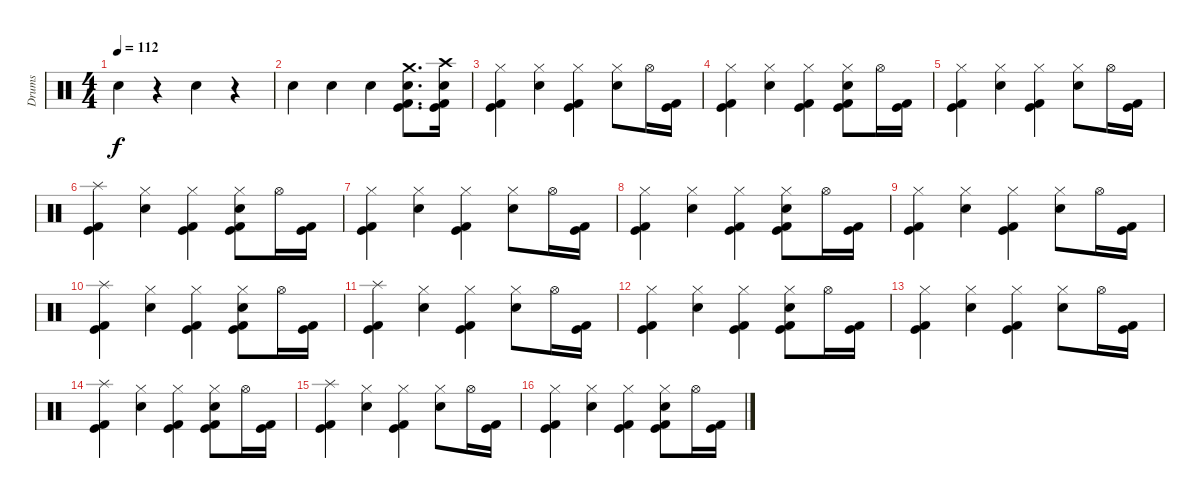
\track ("Drums" "Drums") {instrument percussion}
\staff {score}
\articulation defaults
\ts (4 4)
\tempo 112
\clef neutral
\ks c "Electric Snare (hit)".4{dy f}
r.4 "Electric Snare (hit)".4 r.4 |
"Electric Snare (hit)".4 "Electric Snare (hit)".4 "Electric Snare (hit)".4 ("Crash medium (hit)" "Electric Snare (hit)" "Kick (hit) 2" "Kick (hit)").8{d} ("Crash high (hit)" "Electric Snare (hit)" "Kick (hit) 2" "Kick (hit)").16 |
("Hi-Hat (closed)" "Kick (hit) 2" "Kick (hit)").4 ("Hi-Hat (closed)" "Electric Snare (hit)").4 ("Hi-Hat (closed)" "Kick (hit) 2" "Kick (hit)").4 ("Hi-Hat (closed)" "Electric Snare (hit)").8 "Hi-Hat (open)".16 ("Kick (hit) 2" "Kick (hit)").16 |
("Hi-Hat (closed)" "Kick (hit) 2" "Kick (hit)").4 ("Hi-Hat (closed)" "Electric Snare (hit)").4 ("Hi-Hat (closed)" "Kick (hit) 2" "Kick (hit)").4 ("Hi-Hat (closed)" "Electric Snare (hit)" "Kick (hit) 2" "Kick (hit)").8 "Hi-Hat (open)".16 ("Kick (hit) 2" "Kick (hit)").16 |
("Hi-Hat (closed)" "Kick (hit) 2" "Kick (hit)").4 ("Hi-Hat (closed)" "Electric Snare (hit)").4 ("Hi-Hat (closed)" "Kick (hit) 2" "Kick (hit)").4 ("Hi-Hat (closed)" "Electric Snare (hit)").8 "Hi-Hat (open)".16 ("Kick (hit) 2" "Kick (hit)").16 |
("Splash (hit)" "Kick (hit) 2" "Kick (hit)").4 ("Hi-Hat (closed)" "Electric Snare (hit)").4 ("Hi-Hat (closed)" "Kick (hit) 2" "Kick (hit)").4 ("Hi-Hat (closed)" "Electric Snare (hit)" "Kick (hit) 2" "Kick (hit)").8 "Hi-Hat (open)".16 ("Kick (hit) 2" "Kick (hit)").16 |
("Hi-Hat (closed)" "Kick (hit) 2" "Kick (hit)").4 ("Hi-Hat (closed)" "Electric Snare (hit)").4 ("Hi-Hat (closed)" "Kick (hit) 2" "Kick (hit)").4 ("Hi-Hat (closed)" "Electric Snare (hit)").8 "Hi-Hat (open)".16 ("Kick (hit) 2" "Kick (hit)").16 |
("Hi-Hat (closed)" "Kick (hit) 2" "Kick (hit)").4 ("Hi-Hat (closed)" "Electric Snare (hit)").4 ("Hi-Hat (closed)" "Kick (hit) 2" "Kick (hit)").4 ("Hi-Hat (closed)" "Electric Snare (hit)" "Kick (hit) 2" "Kick (hit)").8 "Hi-Hat (open)".16 ("Kick (hit) 2" "Kick (hit)").16 |
("Hi-Hat (closed)" "Kick (hit) 2" "Kick (hit)").4 ("Hi-Hat (closed)" "Electric Snare (hit)").4 ("Hi-Hat (closed)" "Kick (hit) 2" "Kick (hit)").4 ("Hi-Hat (closed)" "Electric Snare (hit)").8 "Hi-Hat (open)".16 ("Kick (hit) 2" "Kick (hit)").16 |
("Splash (hit)" "Kick (hit) 2" "Kick (hit)").4 ("Hi-Hat (closed)" "Electric Snare (hit)").4 ("Hi-Hat (closed)" "Kick (hit) 2" "Kick (hit)").4 ("Hi-Hat (closed)" "Electric Snare (hit)" "Kick (hit) 2" "Kick (hit)").8 "Hi-Hat (open)".16 ("Kick (hit) 2" "Kick (hit)").16 |
("Splash (hit)" "Kick (hit) 2" "Kick (hit)").4 ("Hi-Hat (closed)" "Electric Snare (hit)").4 ("Hi-Hat (closed)" "Kick (hit) 2" "Kick (hit)").4 ("Hi-Hat (closed)" "Electric Snare (hit)").8 "Hi-Hat (open)".16 ("Kick (hit) 2" "Kick (hit)").16 |
("Hi-Hat (closed)" "Kick (hit) 2" "Kick (hit)").4 ("Hi-Hat (closed)" "Electric Snare (hit)").4 ("Hi-Hat (closed)" "Kick (hit) 2" "Kick (hit)").4 ("Hi-Hat (closed)" "Electric Snare (hit)" "Kick (hit) 2" "Kick (hit)").8 "Hi-Hat (open)".16 ("Kick (hit) 2" "Kick (hit)").16 |
("Hi-Hat (closed)" "Kick (hit) 2" "Kick (hit)").4 ("Hi-Hat (closed)" "Electric Snare (hit)").4 ("Hi-Hat (closed)" "Kick (hit) 2" "Kick (hit)").4 ("Hi-Hat (closed)" "Electric Snare (hit)").8 "Hi-Hat (open)".16 ("Kick (hit) 2" "Kick (hit)").16 |
("Splash (hit)" "Kick (hit) 2" "Kick (hit)").4 ("Hi-Hat (closed)" "Electric Snare (hit)").4 ("Hi-Hat (closed)" "Kick (hit) 2" "Kick (hit)").4 ("Hi-Hat (closed)" "Electric Snare (hit)" "Kick (hit) 2" "Kick (hit)").8 "Hi-Hat (open)".16 ("Kick (hit) 2" "Kick (hit)").16 |
("Splash (hit)" "Kick (hit) 2" "Kick (hit)").4 ("Hi-Hat (closed)" "Electric Snare (hit)").4 ("Hi-Hat (closed)" "Kick (hit) 2" "Kick (hit)").4 ("Hi-Hat (closed)" "Electric Snare (hit)").8 "Hi-Hat (open)".16 ("Kick (hit) 2" "Kick (hit)").16 |
("Hi-Hat (closed)" "Kick (hit) 2" "Kick (hit)").4 ("Hi-Hat (closed)" "Electric Snare (hit)").4 ("Hi-Hat (closed)" "Kick (hit) 2" "Kick (hit)").4 ("Hi-Hat (closed)" "Electric Snare (hit)" "Kick (hit) 2" "Kick (hit)").8 "Hi-Hat (open)".16 ("Kick (hit) 2" "Kick (hit)").16
